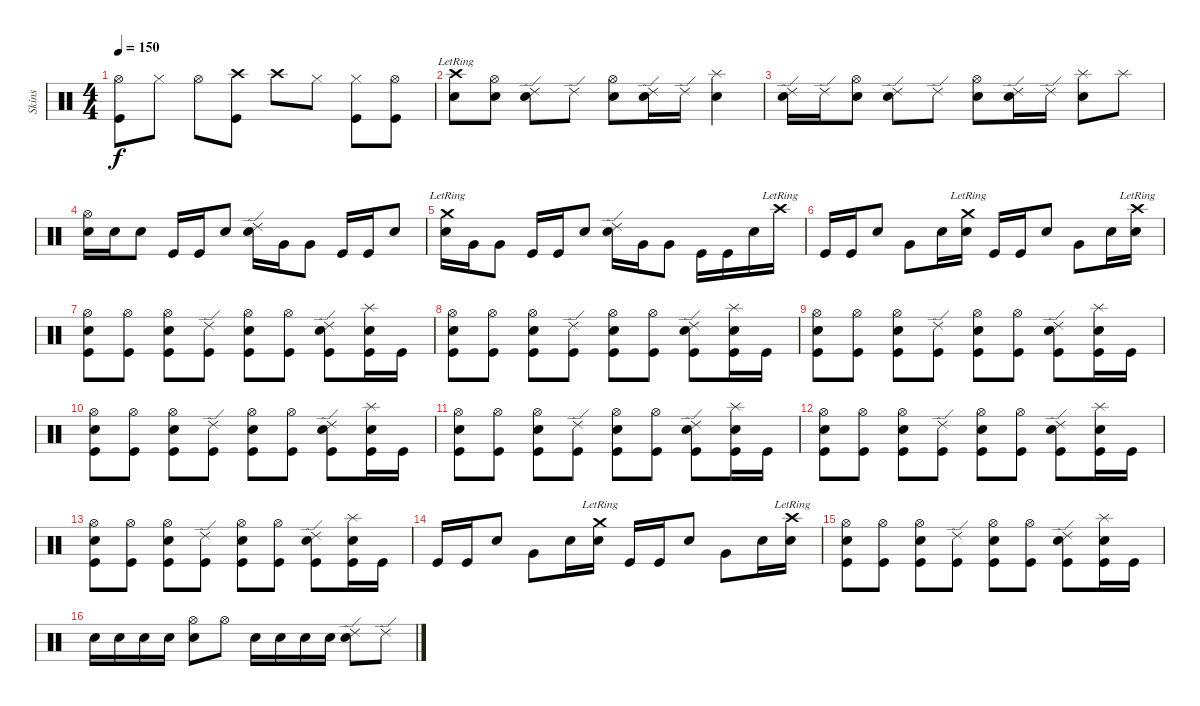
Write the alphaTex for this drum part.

\track ("Skins" "Skins") {instrument percussion}
\staff {score}
\articulation defaults
\ts (4 4)
\tempo 150
\clef neutral
\ks c
("Hi-Hat (open)" "Kick (hit)").8{dy f} "Hi-Hat (closed)".8 "Hi-Hat (open)".8 ("Crash high (hit)" "Kick (hit)").8 "Crash high (hit)".8 "Hi-Hat (closed)".8 ("Hi-Hat (closed)" "Kick (hit)").8 ("Hi-Hat (open)" "Kick (hit)").8 |
("Crash high (hit)"{lr} "Electric Snare (hit)").8 ("Hi-Hat (open)" "Snare (hit) 2").8 ("Ride (edge) 2" "Electric Snare (hit)").8 "Ride (edge) 2".8 ("Hi-Hat (open)" "Electric Snare (hit)").8 ("Ride (edge) 2" "Snare (hit) 2").16 "Ride (edge) 2".16 ("Splash (hit)" "Electric Snare (hit)").4 |
("Ride (edge) 2" "Electric Snare (hit)").16 "Ride (edge) 2".16 ("Hi-Hat (open)" "Snare (hit) 2").8 ("Ride (edge) 2" "Electric Snare (hit)").8 "Ride (edge) 2".8 ("Hi-Hat (open)" "Electric Snare (hit)").8 ("Ride (edge) 2" "Snare (hit) 2").16 "Ride (edge) 2".16 ("Splash (hit)" "Electric Snare (hit)").8 "Splash (hit)".8 |
("Hi-Hat (open)" "Snare (hit) 2").16 "Electric Snare (hit)".16 "Electric Snare (hit)".8 "Kick (hit)".16 "Kick (hit)".16 "Snare (hit) 2".8 ("Ride (edge) 2" "Snare (hit) 2").16 "Very Low Tom (hit)".16 "Very Low Tom (hit)".8 "Kick (hit)".16 "Kick (hit)".16 "Snare (hit) 2".8 |
("Snare (hit) 2" "Crash medium (hit)"{lr}).16 "Very Low Tom (hit)".16 "Very Low Tom (hit)".8 "Kick (hit)".16 "Kick (hit)".16 "Snare (hit) 2".8 ("Ride (edge) 2" "Snare (hit) 2").16 "Very Low Tom (hit)".16 "Very Low Tom (hit)".8 "Kick (hit)".16 "Kick (hit)".16 "Snare (hit) 2".16 "Crash high (hit)"{lr}.16 |
"Kick (hit)".16 "Kick (hit)".16 "Snare (hit) 2".8 "Very Low Tom (hit)".8 "Electric Snare (hit)".16 ("Electric Snare (hit)" "Crash medium (hit)"{lr}).16 "Kick (hit)".16 "Kick (hit)".16 "Snare (hit) 2".8 "Very Low Tom (hit)".8 "Electric Snare (hit)".16 ("Electric Snare (hit)" "Crash high (hit)"{lr}).16 |
("Hi-Hat (open)" "Snare (hit) 2" "Kick (hit)").8 ("Hi-Hat (open)" "Kick (hit)").8 ("Hi-Hat (open)" "Snare (hit) 2" "Kick (hit)").8 ("Ride (edge) 2" "Kick (hit)").8 ("Hi-Hat (open)" "Snare (hit) 2" "Kick (hit)").8 ("Hi-Hat (open)" "Kick (hit)").8 ("Ride (edge) 2" "Electric Snare (hit)" "Kick (hit)").8 ("Splash (hit)" "Electric Snare (hit)" "Kick (hit)").16 "Kick (hit)".16 |
("Hi-Hat (open)" "Snare (hit) 2" "Kick (hit)").8 ("Hi-Hat (open)" "Kick (hit)").8 ("Hi-Hat (open)" "Snare (hit) 2" "Kick (hit)").8 ("Ride (edge) 2" "Kick (hit)").8 ("Hi-Hat (open)" "Snare (hit) 2" "Kick (hit)").8 ("Hi-Hat (open)" "Kick (hit)").8 ("Ride (edge) 2" "Electric Snare (hit)" "Kick (hit)").8 ("Splash (hit)" "Electric Snare (hit)" "Kick (hit)").16 "Kick (hit)".16 |
("Hi-Hat (open)" "Snare (hit) 2" "Kick (hit)").8 ("Hi-Hat (open)" "Kick (hit)").8 ("Hi-Hat (open)" "Snare (hit) 2" "Kick (hit)").8 ("Ride (edge) 2" "Kick (hit)").8 ("Hi-Hat (open)" "Snare (hit) 2" "Kick (hit)").8 ("Hi-Hat (open)" "Kick (hit)").8 ("Ride (edge) 2" "Electric Snare (hit)" "Kick (hit)").8 ("Splash (hit)" "Electric Snare (hit)" "Kick (hit)").16 "Kick (hit)".16 |
("Hi-Hat (open)" "Snare (hit) 2" "Kick (hit)").8 ("Hi-Hat (open)" "Kick (hit)").8 ("Hi-Hat (open)" "Snare (hit) 2" "Kick (hit)").8 ("Ride (edge) 2" "Kick (hit)").8 ("Hi-Hat (open)" "Snare (hit) 2" "Kick (hit)").8 ("Hi-Hat (open)" "Kick (hit)").8 ("Ride (edge) 2" "Electric Snare (hit)" "Kick (hit)").8 ("Splash (hit)" "Electric Snare (hit)" "Kick (hit)").16 "Kick (hit)".16 |
("Hi-Hat (open)" "Snare (hit) 2" "Kick (hit)").8 ("Hi-Hat (open)" "Kick (hit)").8 ("Hi-Hat (open)" "Snare (hit) 2" "Kick (hit)").8 ("Ride (edge) 2" "Kick (hit)").8 ("Hi-Hat (open)" "Snare (hit) 2" "Kick (hit)").8 ("Hi-Hat (open)" "Kick (hit)").8 ("Ride (edge) 2" "Electric Snare (hit)" "Kick (hit)").8 ("Splash (hit)" "Electric Snare (hit)" "Kick (hit)").16 "Kick (hit)".16 |
("Hi-Hat (open)" "Snare (hit) 2" "Kick (hit)").8 ("Hi-Hat (open)" "Kick (hit)").8 ("Hi-Hat (open)" "Snare (hit) 2" "Kick (hit)").8 ("Ride (edge) 2" "Kick (hit)").8 ("Hi-Hat (open)" "Snare (hit) 2" "Kick (hit)").8 ("Hi-Hat (open)" "Kick (hit)").8 ("Ride (edge) 2" "Electric Snare (hit)" "Kick (hit)").8 ("Splash (hit)" "Electric Snare (hit)" "Kick (hit)").16 "Kick (hit)".16 |
("Hi-Hat (open)" "Snare (hit) 2" "Kick (hit)").8 ("Hi-Hat (open)" "Kick (hit)").8 ("Hi-Hat (open)" "Snare (hit) 2" "Kick (hit)").8 ("Ride (edge) 2" "Kick (hit)").8 ("Hi-Hat (open)" "Snare (hit) 2" "Kick (hit)").8 ("Hi-Hat (open)" "Kick (hit)").8 ("Ride (edge) 2" "Electric Snare (hit)" "Kick (hit)").8 ("Splash (hit)" "Electric Snare (hit)" "Kick (hit)").16 "Kick (hit)".16 |
"Kick (hit)".16 "Kick (hit)".16 "Snare (hit) 2".8 "Very Low Tom (hit)".8 "Electric Snare (hit)".16 ("Electric Snare (hit)" "Crash medium (hit)"{lr}).16 "Kick (hit)".16 "Kick (hit)".16 "Snare (hit) 2".8 "Very Low Tom (hit)".8 "Electric Snare (hit)".16 ("Electric Snare (hit)" "Crash high (hit)"{lr}).16 |
("Hi-Hat (open)" "Snare (hit) 2" "Kick (hit)").8 ("Hi-Hat (open)" "Kick (hit)").8 ("Hi-Hat (open)" "Snare (hit) 2" "Kick (hit)").8 ("Ride (edge) 2" "Kick (hit)").8 ("Hi-Hat (open)" "Snare (hit) 2" "Kick (hit)").8 ("Hi-Hat (open)" "Kick (hit)").8 ("Ride (edge) 2" "Electric Snare (hit)" "Kick (hit)").8 ("Splash (hit)" "Electric Snare (hit)" "Kick (hit)").16 "Kick (hit)".16 |
"Electric Snare (hit)".16 "Electric Snare (hit)".16 "Electric Snare (hit)".16 "Electric Snare (hit)".16 ("Electric Snare (hit)" "Hi-Hat (open)").8 "Hi-Hat (open)".8 "Snare (hit) 2".16 "Snare (hit) 2".16 "Snare (hit) 2".16 "Snare (hit) 2".16 ("Snare (hit) 2" "Ride (edge) 2").8 "Ride (edge) 2".8
